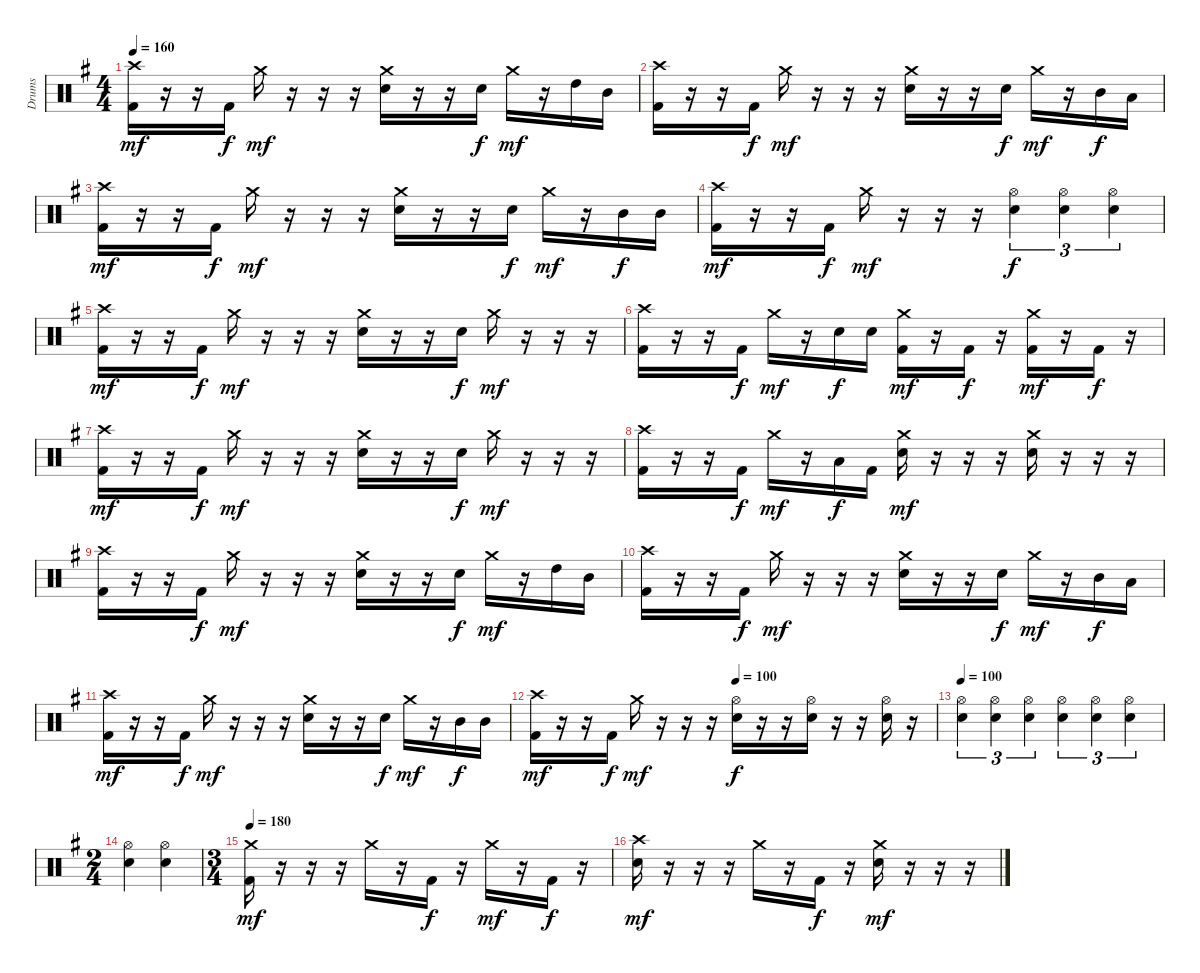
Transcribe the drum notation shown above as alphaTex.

\track ("Drums" "Drums") {instrument percussion}
\staff {score}
\articulation defaults
\ts (4 4)
\tempo 160
\clef neutral
\ks g
("Crash high (hit)" "Kick (hit) 2").16{dy mf} r.16 r.16 "Kick (hit) 2".16{dy f} "Crash medium (hit)".16{dy mf} r.16 r.16 r.16 ("Crash medium (hit)" "Snare (hit) 2").16 r.16 r.16 "Snare (hit) 2".16{dy f} "Crash medium (hit)".16{dy mf} r.16 "High Tom (hit)".16 "Mid Tom (hit)".16 |
("Crash high (hit)" "Kick (hit) 2").16 r.16 r.16 "Kick (hit) 2".16{dy f} "Crash medium (hit)".16{dy mf} r.16 r.16 r.16 ("Crash medium (hit)" "Snare (hit) 2").16 r.16 r.16 "Snare (hit) 2".16{dy f} "Crash medium (hit)".16{dy mf} r.16 "Mid Tom (hit)".16{dy f} "Low Tom (hit)".16 |
("Crash high (hit)" "Kick (hit) 2").16{dy mf} r.16 r.16 "Kick (hit) 2".16{dy f} "Crash medium (hit)".16{dy mf} r.16 r.16 r.16 ("Crash medium (hit)" "Snare (hit) 2").16 r.16 r.16 "Snare (hit) 2".16{dy f} "Crash medium (hit)".16{dy mf} r.16 "Mid Tom (hit)".16{dy f} "Mid Tom (hit)".16 |
("Crash high (hit)" "Kick (hit) 2").16{dy mf} r.16 r.16 "Kick (hit) 2".16{dy f} "Crash medium (hit)".16{dy mf} r.16 r.16 r.16 ("Hi-Hat (open)" "Snare (hit) 2").4{tu (3 2) dy f} ("Hi-Hat (open)" "Snare (hit) 2").4{tu (3 2)} ("Hi-Hat (open)" "Snare (hit) 2").4{tu (3 2)} |
("Crash high (hit)" "Kick (hit) 2").16{dy mf} r.16 r.16 "Kick (hit) 2".16{dy f} "Crash medium (hit)".16{dy mf} r.16 r.16 r.16 ("Crash medium (hit)" "Snare (hit) 2").16 r.16 r.16 "Snare (hit) 2".16{dy f} "Crash medium (hit)".16{dy mf} r.16 r.16 r.16 |
("Crash high (hit)" "Kick (hit) 2").16 r.16 r.16 "Kick (hit) 2".16{dy f} "Crash medium (hit)".16{dy mf} r.16 "Snare (hit) 2".16{dy f} "Snare (hit) 2".16 ("Crash medium (hit)" "Kick (hit) 2").16{dy mf} r.16 "Kick (hit) 2".16{dy f} r.16 ("Crash medium (hit)" "Kick (hit) 2").16{dy mf} r.16 "Kick (hit) 2".16{dy f} r.16 |
("Crash high (hit)" "Kick (hit) 2").16{dy mf} r.16 r.16 "Kick (hit) 2".16{dy f} "Crash medium (hit)".16{dy mf} r.16 r.16 r.16 ("Crash medium (hit)" "Snare (hit) 2").16 r.16 r.16 "Snare (hit) 2".16{dy f} "Crash medium (hit)".16{dy mf} r.16 r.16 r.16 |
("Crash high (hit)" "Kick (hit) 2").16 r.16 r.16 "Kick (hit) 2".16{dy f} "Crash medium (hit)".16{dy mf} r.16 "Low Tom (hit)".16{dy f} "Kick (hit) 2".16 ("Crash medium (hit)" "Snare (hit) 2").16{dy mf} r.16 r.16 r.16 ("Crash medium (hit)" "Snare (hit) 2").16 r.16 r.16 r.16 |
("Crash high (hit)" "Kick (hit) 2").16 r.16 r.16 "Kick (hit) 2".16{dy f} "Crash medium (hit)".16{dy mf} r.16 r.16 r.16 ("Crash medium (hit)" "Snare (hit) 2").16 r.16 r.16 "Snare (hit) 2".16{dy f} "Crash medium (hit)".16{dy mf} r.16 "High Tom (hit)".16 "Mid Tom (hit)".16 |
("Crash high (hit)" "Kick (hit) 2").16 r.16 r.16 "Kick (hit) 2".16{dy f} "Crash medium (hit)".16{dy mf} r.16 r.16 r.16 ("Crash medium (hit)" "Snare (hit) 2").16 r.16 r.16 "Snare (hit) 2".16{dy f} "Crash medium (hit)".16{dy mf} r.16 "Mid Tom (hit)".16{dy f} "Low Tom (hit)".16 |
("Crash high (hit)" "Kick (hit) 2").16{dy mf} r.16 r.16 "Kick (hit) 2".16{dy f} "Crash medium (hit)".16{dy mf} r.16 r.16 r.16 ("Crash medium (hit)" "Snare (hit) 2").16 r.16 r.16 "Snare (hit) 2".16{dy f} "Crash medium (hit)".16{dy mf} r.16 "Mid Tom (hit)".16{dy f} "Mid Tom (hit)".16 |
\tempo (100 0.5)
("Crash high (hit)" "Kick (hit) 2").16{dy mf} r.16 r.16 "Kick (hit) 2".16{dy f} "Crash medium (hit)".16{dy mf} r.16 r.16 r.16 ("Hi-Hat (open)" "Snare (hit) 2").16{dy f} r.16 r.16 ("Hi-Hat (open)" "Snare (hit) 2").16 r.16 r.16 ("Hi-Hat (open)" "Snare (hit) 2").16 r.16 |
\tempo 100
("Hi-Hat (open)" "Snare (hit) 2").4{tu (3 2)} ("Hi-Hat (open)" "Snare (hit) 2").4{tu (3 2)} ("Hi-Hat (open)" "Snare (hit) 2").4{tu (3 2)} ("Hi-Hat (open)" "Snare (hit) 2").4{tu (3 2)} ("Hi-Hat (open)" "Snare (hit) 2").4{tu (3 2)} ("Hi-Hat (open)" "Snare (hit) 2").4{tu (3 2)} |
\ts (2 4)
("Hi-Hat (open)" "Snare (hit) 2").4 ("Hi-Hat (open)" "Snare (hit) 2").4 |
\ts (3 4)
\tempo 180
("Crash medium (hit)" "Kick (hit) 2").16{dy mf} r.16 r.16 r.16 "Crash medium (hit)".16 r.16 "Kick (hit) 2".16{dy f} r.16 "Crash medium (hit)".16{dy mf} r.16 "Kick (hit) 2".16{dy f} r.16 |
("Crash high (hit)" "Snare (hit) 2").16{dy mf} r.16 r.16 r.16 "Crash medium (hit)".16 r.16 "Kick (hit) 2".16{dy f} r.16 ("Crash medium (hit)" "Snare (hit) 2").16{dy mf} r.16 r.16 r.16
